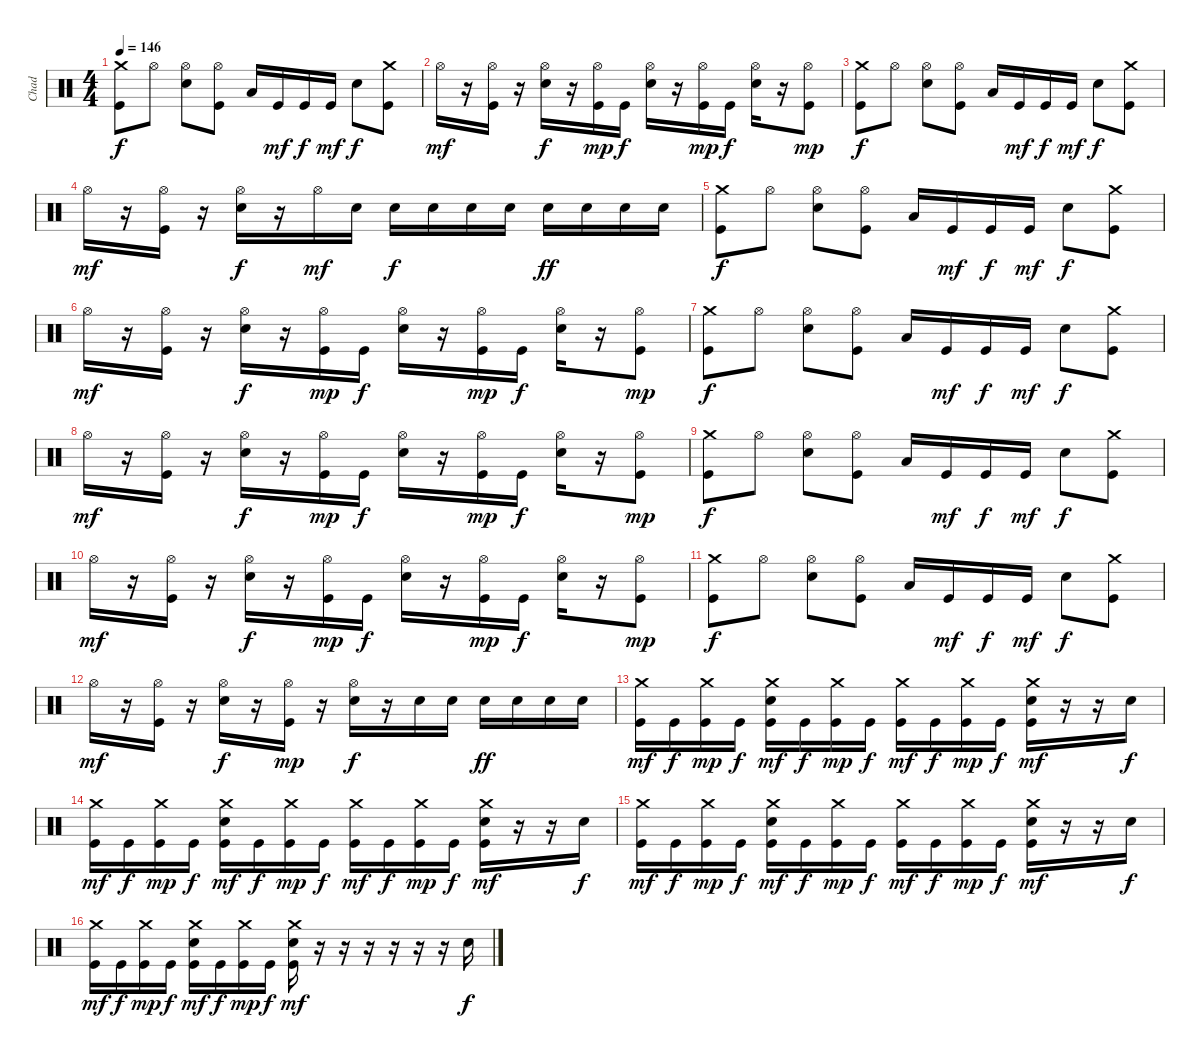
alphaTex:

\track ("Chad" "Chad") {instrument percussion}
\staff {score}
\articulation defaults
\ts (4 4)
\tempo 146
\clef neutral
\ks c
("Crash medium (hit)" "Kick (hit)").8{dy f} "Hi-Hat (open)".8 ("Hi-Hat (open)" "Snare (hit) 2").8 ("Hi-Hat (open)" "Kick (hit)").8 "Low Floor Tom (hit)".16 "Kick (hit)".16{dy mf} "Kick (hit)".16{dy f} "Kick (hit)".16{dy mf} "Snare (hit) 2".8{dy f} ("Crash medium (hit)" "Kick (hit)").8 |
"Hi-Hat (open)".16{dy mf} r.16 ("Hi-Hat (open)" "Kick (hit)").16 r.16 ("Hi-Hat (open)" "Snare (hit) 2").16{dy f} r.16 ("Hi-Hat (open)" "Kick (hit)").16{dy mp} "Kick (hit)".16{dy f} ("Hi-Hat (open)" "Snare (hit) 2").16 r.16 ("Hi-Hat (open)" "Kick (hit)").16{dy mp} "Kick (hit)".16{dy f} ("Hi-Hat (open)" "Snare (hit) 2").16 r.16 ("Hi-Hat (open)" "Kick (hit)").8{dy mp} |
("Crash medium (hit)" "Kick (hit)").8{dy f} "Hi-Hat (open)".8 ("Hi-Hat (open)" "Snare (hit) 2").8 ("Hi-Hat (open)" "Kick (hit)").8 "Low Floor Tom (hit)".16 "Kick (hit)".16{dy mf} "Kick (hit)".16{dy f} "Kick (hit)".16{dy mf} "Snare (hit) 2".8{dy f} ("Crash medium (hit)" "Kick (hit)").8 |
"Hi-Hat (open)".16{dy mf} r.16 ("Hi-Hat (open)" "Kick (hit)").16 r.16 ("Hi-Hat (open)" "Snare (hit) 2").16{dy f} r.16 "Hi-Hat (open)".16{dy mf} "Snare (hit) 2".16 "Snare (hit) 2".16{dy f} "Snare (hit) 2".16 "Snare (hit) 2".16 "Snare (hit) 2".16 "Snare (hit) 2".16{dy ff} "Snare (hit) 2".16 "Snare (hit) 2".16 "Snare (hit) 2".16 |
("Crash medium (hit)" "Kick (hit)").8{dy f} "Hi-Hat (open)".8 ("Hi-Hat (open)" "Snare (hit) 2").8 ("Hi-Hat (open)" "Kick (hit)").8 "Low Floor Tom (hit)".16 "Kick (hit)".16{dy mf} "Kick (hit)".16{dy f} "Kick (hit)".16{dy mf} "Snare (hit) 2".8{dy f} ("Crash medium (hit)" "Kick (hit)").8 |
"Hi-Hat (open)".16{dy mf} r.16 ("Hi-Hat (open)" "Kick (hit)").16 r.16 ("Hi-Hat (open)" "Snare (hit) 2").16{dy f} r.16 ("Hi-Hat (open)" "Kick (hit)").16{dy mp} "Kick (hit)".16{dy f} ("Hi-Hat (open)" "Snare (hit) 2").16 r.16 ("Hi-Hat (open)" "Kick (hit)").16{dy mp} "Kick (hit)".16{dy f} ("Hi-Hat (open)" "Snare (hit) 2").16 r.16 ("Hi-Hat (open)" "Kick (hit)").8{dy mp} |
("Crash medium (hit)" "Kick (hit)").8{dy f} "Hi-Hat (open)".8 ("Hi-Hat (open)" "Snare (hit) 2").8 ("Hi-Hat (open)" "Kick (hit)").8 "Low Floor Tom (hit)".16 "Kick (hit)".16{dy mf} "Kick (hit)".16{dy f} "Kick (hit)".16{dy mf} "Snare (hit) 2".8{dy f} ("Crash medium (hit)" "Kick (hit)").8 |
"Hi-Hat (open)".16{dy mf} r.16 ("Hi-Hat (open)" "Kick (hit)").16 r.16 ("Hi-Hat (open)" "Snare (hit) 2").16{dy f} r.16 ("Hi-Hat (open)" "Kick (hit)").16{dy mp} "Kick (hit)".16{dy f} ("Hi-Hat (open)" "Snare (hit) 2").16 r.16 ("Hi-Hat (open)" "Kick (hit)").16{dy mp} "Kick (hit)".16{dy f} ("Hi-Hat (open)" "Snare (hit) 2").16 r.16 ("Hi-Hat (open)" "Kick (hit)").8{dy mp} |
("Crash medium (hit)" "Kick (hit)").8{dy f} "Hi-Hat (open)".8 ("Hi-Hat (open)" "Snare (hit) 2").8 ("Hi-Hat (open)" "Kick (hit)").8 "Low Floor Tom (hit)".16 "Kick (hit)".16{dy mf} "Kick (hit)".16{dy f} "Kick (hit)".16{dy mf} "Snare (hit) 2".8{dy f} ("Crash medium (hit)" "Kick (hit)").8 |
"Hi-Hat (open)".16{dy mf} r.16 ("Hi-Hat (open)" "Kick (hit)").16 r.16 ("Hi-Hat (open)" "Snare (hit) 2").16{dy f} r.16 ("Hi-Hat (open)" "Kick (hit)").16{dy mp} "Kick (hit)".16{dy f} ("Hi-Hat (open)" "Snare (hit) 2").16 r.16 ("Hi-Hat (open)" "Kick (hit)").16{dy mp} "Kick (hit)".16{dy f} ("Hi-Hat (open)" "Snare (hit) 2").16 r.16 ("Hi-Hat (open)" "Kick (hit)").8{dy mp} |
("Crash medium (hit)" "Kick (hit)").8{dy f} "Hi-Hat (open)".8 ("Hi-Hat (open)" "Snare (hit) 2").8 ("Hi-Hat (open)" "Kick (hit)").8 "Low Floor Tom (hit)".16 "Kick (hit)".16{dy mf} "Kick (hit)".16{dy f} "Kick (hit)".16{dy mf} "Snare (hit) 2".8{dy f} ("Crash medium (hit)" "Kick (hit)").8 |
"Hi-Hat (open)".16{dy mf} r.16 ("Hi-Hat (open)" "Kick (hit)").16 r.16 ("Hi-Hat (open)" "Snare (hit) 2").16{dy f} r.16 ("Hi-Hat (open)" "Kick (hit)").16{dy mp} r.16 ("Hi-Hat (open)" "Snare (hit) 2").16{dy f} r.16 "Snare (hit) 2".16 "Snare (hit) 2".16 "Snare (hit) 2".16{dy ff} "Snare (hit) 2".16 "Snare (hit) 2".16 "Snare (hit) 2".16 |
("Crash medium (hit)" "Kick (hit)").16{dy mf} "Kick (hit)".16{dy f} ("Crash medium (hit)" "Kick (hit)").16{dy mp} "Kick (hit)".16{dy f} ("Crash medium (hit)" "Snare (hit) 2" "Kick (hit)").16{dy mf} "Kick (hit)".16{dy f} ("Crash medium (hit)" "Kick (hit)").16{dy mp} "Kick (hit)".16{dy f} ("Crash medium (hit)" "Kick (hit)").16{dy mf} "Kick (hit)".16{dy f} ("Crash medium (hit)" "Kick (hit)").16{dy mp} "Kick (hit)".16{dy f} ("Crash medium (hit)" "Snare (hit) 2" "Kick (hit)").16{dy mf} r.16 r.16 "Snare (hit) 2".16{dy f} |
("Crash medium (hit)" "Kick (hit)").16{dy mf} "Kick (hit)".16{dy f} ("Crash medium (hit)" "Kick (hit)").16{dy mp} "Kick (hit)".16{dy f} ("Crash medium (hit)" "Snare (hit) 2" "Kick (hit)").16{dy mf} "Kick (hit)".16{dy f} ("Crash medium (hit)" "Kick (hit)").16{dy mp} "Kick (hit)".16{dy f} ("Crash medium (hit)" "Kick (hit)").16{dy mf} "Kick (hit)".16{dy f} ("Crash medium (hit)" "Kick (hit)").16{dy mp} "Kick (hit)".16{dy f} ("Crash medium (hit)" "Snare (hit) 2" "Kick (hit)").16{dy mf} r.16 r.16 "Snare (hit) 2".16{dy f} |
("Crash medium (hit)" "Kick (hit)").16{dy mf} "Kick (hit)".16{dy f} ("Crash medium (hit)" "Kick (hit)").16{dy mp} "Kick (hit)".16{dy f} ("Crash medium (hit)" "Snare (hit) 2" "Kick (hit)").16{dy mf} "Kick (hit)".16{dy f} ("Crash medium (hit)" "Kick (hit)").16{dy mp} "Kick (hit)".16{dy f} ("Crash medium (hit)" "Kick (hit)").16{dy mf} "Kick (hit)".16{dy f} ("Crash medium (hit)" "Kick (hit)").16{dy mp} "Kick (hit)".16{dy f} ("Crash medium (hit)" "Snare (hit) 2" "Kick (hit)").16{dy mf} r.16 r.16 "Snare (hit) 2".16{dy f} |
("Crash medium (hit)" "Kick (hit)").16{dy mf} "Kick (hit)".16{dy f} ("Crash medium (hit)" "Kick (hit)").16{dy mp} "Kick (hit)".16{dy f} ("Crash medium (hit)" "Snare (hit) 2" "Kick (hit)").16{dy mf} "Kick (hit)".16{dy f} ("Crash medium (hit)" "Kick (hit)").16{dy mp} "Kick (hit)".16{dy f} ("Crash medium (hit)" "Snare (hit) 2" "Kick (hit)").16{dy mf} r.16 r.16 r.16 r.16 r.16 r.16 "Snare (hit) 2".16{dy f}
